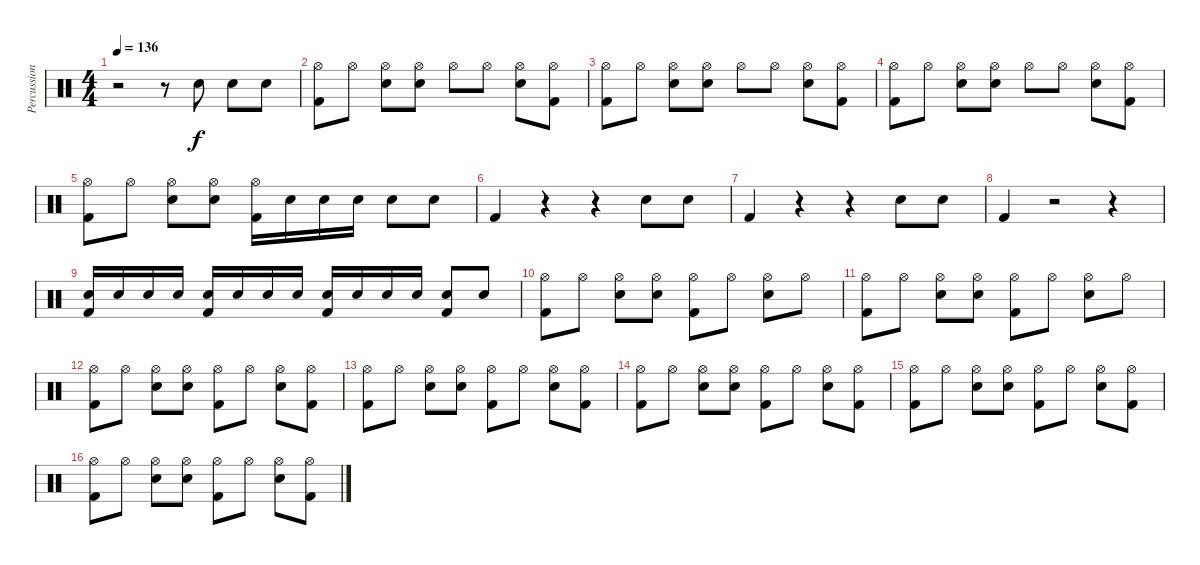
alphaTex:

\track ("Percussion" "Percussion") {instrument percussion}
\staff {score}
\articulation defaults
\ts (4 4)
\tempo 136
\clef neutral
\ks c
r.2{dy f} r.8 "Snare (hit) 2".8 "Snare (hit) 2".8 "Snare (hit) 2".8 |
("Hi-Hat (open)" "Kick (hit) 2").8 "Hi-Hat (open)".8 ("Hi-Hat (open)" "Snare (hit) 2").8 ("Hi-Hat (open)" "Snare (hit) 2").8 "Hi-Hat (open)".8 "Hi-Hat (open)".8 ("Hi-Hat (open)" "Snare (hit) 2").8 ("Hi-Hat (open)" "Kick (hit) 2").8 |
("Hi-Hat (open)" "Kick (hit) 2").8 "Hi-Hat (open)".8 ("Hi-Hat (open)" "Snare (hit) 2").8 ("Hi-Hat (open)" "Snare (hit) 2").8 "Hi-Hat (open)".8 "Hi-Hat (open)".8 ("Hi-Hat (open)" "Snare (hit) 2").8 ("Hi-Hat (open)" "Kick (hit) 2").8 |
("Hi-Hat (open)" "Kick (hit) 2").8 "Hi-Hat (open)".8 ("Hi-Hat (open)" "Snare (hit) 2").8 ("Hi-Hat (open)" "Snare (hit) 2").8 "Hi-Hat (open)".8 "Hi-Hat (open)".8 ("Hi-Hat (open)" "Snare (hit) 2").8 ("Hi-Hat (open)" "Kick (hit) 2").8 |
("Hi-Hat (open)" "Kick (hit) 2").8 "Hi-Hat (open)".8 ("Hi-Hat (open)" "Snare (hit) 2").8 ("Hi-Hat (open)" "Snare (hit) 2").8 ("Hi-Hat (open)" "Kick (hit) 2").16 "Snare (hit) 2".16 "Snare (hit) 2".16 "Snare (hit) 2".16 "Snare (hit) 2".8 "Snare (hit) 2".8 |
"Kick (hit) 2".4 r.4 r.4 "Snare (hit) 2".8 "Snare (hit) 2".8 |
"Kick (hit) 2".4 r.4 r.4 "Snare (hit) 2".8 "Snare (hit) 2".8 |
"Kick (hit) 2".4 r.2 r.4 |
("Snare (hit) 2" "Kick (hit) 2").16 "Snare (hit) 2".16 "Snare (hit) 2".16 "Snare (hit) 2".16 ("Snare (hit) 2" "Kick (hit) 2").16 "Snare (hit) 2".16 "Snare (hit) 2".16 "Snare (hit) 2".16 ("Snare (hit) 2" "Kick (hit) 2").16 "Snare (hit) 2".16 "Snare (hit) 2".16 "Snare (hit) 2".16 ("Snare (hit) 2" "Kick (hit) 2").8 "Snare (hit) 2".8 |
("Hi-Hat (open)" "Kick (hit) 2").8 "Hi-Hat (open)".8 ("Hi-Hat (open)" "Snare (hit) 2").8 ("Hi-Hat (open)" "Snare (hit) 2").8 ("Hi-Hat (open)" "Kick (hit) 2").8 "Hi-Hat (open)".8 ("Hi-Hat (open)" "Snare (hit) 2").8 "Hi-Hat (open)".8 |
("Hi-Hat (open)" "Kick (hit) 2").8 "Hi-Hat (open)".8 ("Hi-Hat (open)" "Snare (hit) 2").8 ("Hi-Hat (open)" "Snare (hit) 2").8 ("Hi-Hat (open)" "Kick (hit) 2").8 "Hi-Hat (open)".8 ("Hi-Hat (open)" "Snare (hit) 2").8 "Hi-Hat (open)".8 |
("Hi-Hat (open)" "Kick (hit) 2").8 "Hi-Hat (open)".8 ("Hi-Hat (open)" "Snare (hit) 2").8 ("Hi-Hat (open)" "Snare (hit) 2").8 ("Hi-Hat (open)" "Kick (hit) 2").8 "Hi-Hat (open)".8 ("Hi-Hat (open)" "Snare (hit) 2").8 ("Hi-Hat (open)" "Kick (hit) 2").8 |
("Hi-Hat (open)" "Kick (hit) 2").8 "Hi-Hat (open)".8 ("Hi-Hat (open)" "Snare (hit) 2").8 ("Hi-Hat (open)" "Snare (hit) 2").8 ("Hi-Hat (open)" "Kick (hit) 2").8 "Hi-Hat (open)".8 ("Hi-Hat (open)" "Snare (hit) 2").8 ("Hi-Hat (open)" "Kick (hit) 2").8 |
("Hi-Hat (open)" "Kick (hit) 2").8 "Hi-Hat (open)".8 ("Hi-Hat (open)" "Snare (hit) 2").8 ("Hi-Hat (open)" "Snare (hit) 2").8 ("Hi-Hat (open)" "Kick (hit) 2").8 "Hi-Hat (open)".8 ("Hi-Hat (open)" "Snare (hit) 2").8 ("Hi-Hat (open)" "Kick (hit) 2").8 |
("Hi-Hat (open)" "Kick (hit) 2").8 "Hi-Hat (open)".8 ("Hi-Hat (open)" "Snare (hit) 2").8 ("Hi-Hat (open)" "Snare (hit) 2").8 ("Hi-Hat (open)" "Kick (hit) 2").8 "Hi-Hat (open)".8 ("Hi-Hat (open)" "Snare (hit) 2").8 ("Hi-Hat (open)" "Kick (hit) 2").8 |
("Hi-Hat (open)" "Kick (hit) 2").8 "Hi-Hat (open)".8 ("Hi-Hat (open)" "Snare (hit) 2").8 ("Hi-Hat (open)" "Snare (hit) 2").8 ("Hi-Hat (open)" "Kick (hit) 2").8 "Hi-Hat (open)".8 ("Hi-Hat (open)" "Snare (hit) 2").8 ("Hi-Hat (open)" "Kick (hit) 2").8
